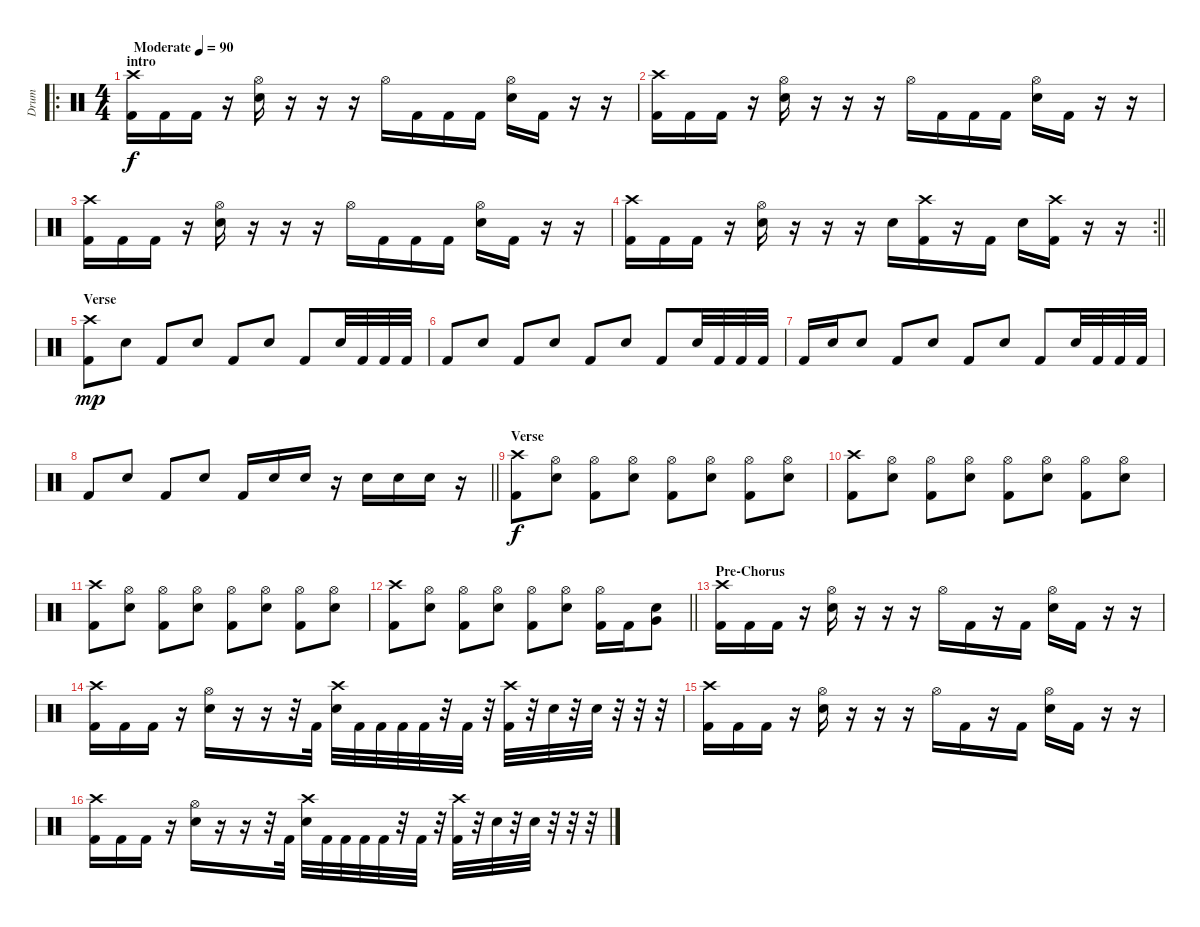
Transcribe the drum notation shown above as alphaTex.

\track ("Drum" "Drum") {instrument percussion}
\staff {score}
\articulation defaults
\ro
\ts (4 4)
\section ("" "intro")
\tempo (90 "Moderate")
\clef neutral
\ks c
("Crash high (hit)" "Kick (hit) 2").16{dy f} "Kick (hit) 2".16 "Kick (hit) 2".16 r.16 ("Hi-Hat (open)" "Electric Snare (hit)").16 r.16 r.16 r.16 "Hi-Hat (open)".16 "Kick (hit) 2".16 "Kick (hit) 2".16 "Kick (hit) 2".16 ("Hi-Hat (open)" "Electric Snare (hit)").16 "Kick (hit) 2".16 r.16 r.16 |
("Crash high (hit)" "Kick (hit) 2").16 "Kick (hit) 2".16 "Kick (hit) 2".16 r.16 ("Hi-Hat (open)" "Electric Snare (hit)").16 r.16 r.16 r.16 "Hi-Hat (open)".16 "Kick (hit) 2".16 "Kick (hit) 2".16 "Kick (hit) 2".16 ("Hi-Hat (open)" "Electric Snare (hit)").16 "Kick (hit) 2".16 r.16 r.16 |
("Crash high (hit)" "Kick (hit) 2").16 "Kick (hit) 2".16 "Kick (hit) 2".16 r.16 ("Hi-Hat (open)" "Electric Snare (hit)").16 r.16 r.16 r.16 "Hi-Hat (open)".16 "Kick (hit) 2".16 "Kick (hit) 2".16 "Kick (hit) 2".16 ("Hi-Hat (open)" "Electric Snare (hit)").16 "Kick (hit) 2".16 r.16 r.16 |
\rc 2
\barLineRight lightlight
("Crash high (hit)" "Kick (hit) 2").16 "Kick (hit) 2".16 "Kick (hit) 2".16 r.16 ("Hi-Hat (open)" "Electric Snare (hit)").16 r.16 r.16 r.16 "Electric Snare (hit)".16 ("Crash high (hit)" "Kick (hit) 2").16 r.16 "Kick (hit) 2".16 "Electric Snare (hit)".16 ("Crash high (hit)" "Kick (hit) 2").16 r.16 r.16 |
\section ("" "Verse")
("Crash high (hit)" "Kick (hit) 2").8{dy mp} "Electric Snare (hit)".8 "Kick (hit) 2".8 "Electric Snare (hit)".8 "Kick (hit) 2".8 "Electric Snare (hit)".8 "Kick (hit) 2".8 "Electric Snare (hit)".32 "Kick (hit) 2".32 "Kick (hit) 2".32 "Kick (hit) 2".32 |
"Kick (hit) 2".8 "Electric Snare (hit)".8 "Kick (hit) 2".8 "Electric Snare (hit)".8 "Kick (hit) 2".8 "Electric Snare (hit)".8 "Kick (hit) 2".8 "Electric Snare (hit)".32 "Kick (hit) 2".32 "Kick (hit) 2".32 "Kick (hit) 2".32 |
"Kick (hit) 2".16 "Electric Snare (hit)".16 "Electric Snare (hit)".8 "Kick (hit) 2".8 "Electric Snare (hit)".8 "Kick (hit) 2".8 "Electric Snare (hit)".8 "Kick (hit) 2".8 "Electric Snare (hit)".32 "Kick (hit) 2".32 "Kick (hit) 2".32 "Kick (hit) 2".32 |
\barLineRight lightlight "Kick (hit) 2".8 "Electric Snare (hit)".8 "Kick (hit) 2".8 "Electric Snare (hit)".8 "Kick (hit) 2".16 "Electric Snare (hit)".16 "Electric Snare (hit)".16
r.16 "Electric Snare (hit)".16 "Electric Snare (hit)".16 "Electric Snare (hit)".16 r.16 |
\section ("" "Verse")
("Crash high (hit)" "Kick (hit) 2").8{dy f} ("Hi-Hat (open)" "Electric Snare (hit)").8 ("Hi-Hat (open)" "Kick (hit) 2").8 ("Hi-Hat (open)" "Electric Snare (hit)").8 ("Hi-Hat (open)" "Kick (hit) 2").8 ("Hi-Hat (open)" "Electric Snare (hit)").8 ("Hi-Hat (open)" "Kick (hit) 2").8 ("Hi-Hat (open)" "Electric Snare (hit)").8 |
("Crash high (hit)" "Kick (hit) 2").8 ("Hi-Hat (open)" "Electric Snare (hit)").8 ("Hi-Hat (open)" "Kick (hit) 2").8 ("Hi-Hat (open)" "Electric Snare (hit)").8 ("Hi-Hat (open)" "Kick (hit) 2").8 ("Hi-Hat (open)" "Electric Snare (hit)").8 ("Hi-Hat (open)" "Kick (hit) 2").8 ("Hi-Hat (open)" "Electric Snare (hit)").8 |
("Crash high (hit)" "Kick (hit) 2").8 ("Hi-Hat (open)" "Electric Snare (hit)").8 ("Hi-Hat (open)" "Kick (hit) 2").8 ("Hi-Hat (open)" "Electric Snare (hit)").8 ("Hi-Hat (open)" "Kick (hit) 2").8 ("Hi-Hat (open)" "Electric Snare (hit)").8 ("Hi-Hat (open)" "Kick (hit) 2").8 ("Hi-Hat (open)" "Electric Snare (hit)").8 |
\barLineRight lightlight
("Crash high (hit)" "Kick (hit) 2").8 ("Hi-Hat (open)" "Electric Snare (hit)").8 ("Hi-Hat (open)" "Kick (hit) 2").8 ("Hi-Hat (open)" "Electric Snare (hit)").8 ("Hi-Hat (open)" "Kick (hit) 2").8 ("Hi-Hat (open)" "Electric Snare (hit)").8 ("Hi-Hat (open)" "Kick (hit) 2").16 "Kick (hit) 2".16 ("Electric Snare (hit)" "Very Low Tom (hit)").8 |
\section ("" "Pre-Chorus")
("Crash high (hit)" "Kick (hit) 2").16 "Kick (hit) 2".16 "Kick (hit) 2".16 r.16 ("Hi-Hat (open)" "Electric Snare (hit)").16 r.16 r.16 r.16 "Hi-Hat (open)".16 "Kick (hit) 2".16 r.16 "Kick (hit) 2".16 ("Hi-Hat (open)" "Electric Snare (hit)").16 "Kick (hit) 2".16 r.16 r.16 |
("Crash high (hit)" "Kick (hit) 2").16 "Kick (hit) 2".16 "Kick (hit) 2".16 r.16 ("Hi-Hat (open)" "Electric Snare (hit)").16 r.16 r.16 r.32 "Kick (hit) 2".32 ("Crash high (hit)" "Electric Snare (hit)").32{volume 9} "Kick (hit) 2".32 "Kick (hit) 2".32 "Kick (hit) 2".32 "Kick (hit) 2".32 r.32 "Kick (hit) 2".32 r.32 ("Crash high (hit)" "Kick (hit) 2").32 r.32 "Electric Snare (hit)".32 r.32 "Electric Snare (hit)".32 r.32 r.32 r.32 |
("Crash high (hit)" "Kick (hit) 2").16{volume 13} "Kick (hit) 2".16 "Kick (hit) 2".16 r.16 ("Hi-Hat (open)" "Electric Snare (hit)").16 r.16 r.16 r.16 "Hi-Hat (open)".16 "Kick (hit) 2".16 r.16 "Kick (hit) 2".16 ("Hi-Hat (open)" "Electric Snare (hit)").16 "Kick (hit) 2".16 r.16 r.16 |
("Crash high (hit)" "Kick (hit) 2").16 "Kick (hit) 2".16 "Kick (hit) 2".16 r.16 ("Hi-Hat (open)" "Electric Snare (hit)").16 r.16 r.16 r.32 "Kick (hit) 2".32 ("Crash high (hit)" "Electric Snare (hit)").32{volume 9} "Kick (hit) 2".32 "Kick (hit) 2".32 "Kick (hit) 2".32 "Kick (hit) 2".32 r.32 "Kick (hit) 2".32 r.32 ("Crash high (hit)" "Kick (hit) 2").32 r.32 "Electric Snare (hit)".32 r.32 "Electric Snare (hit)".32 r.32 r.32 r.32
